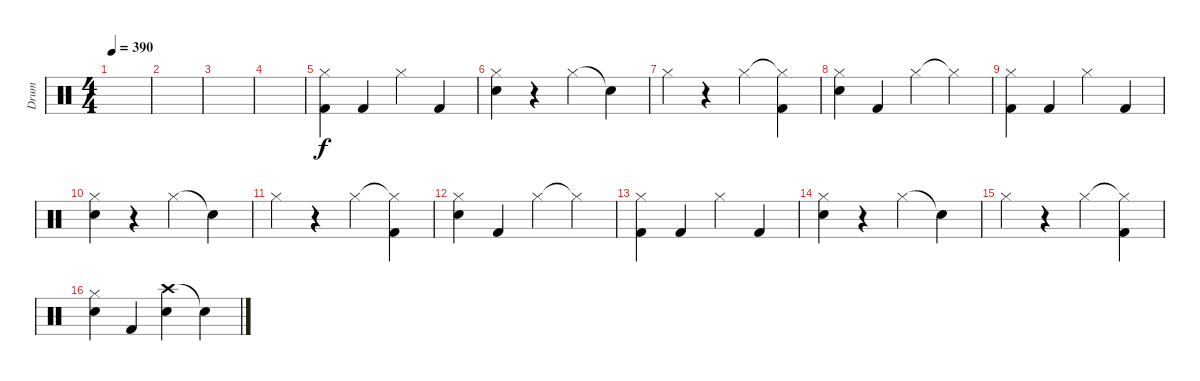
\track ("Drum" "Drum") {instrument percussion}
\staff {score}
\articulation defaults
\ts (4 4)
\tempo 390
\clef neutral
\ks c
|
|
|
|
("Hi-Hat (closed)" "Kick (hit) 2").4 "Kick (hit) 2".4 "Hi-Hat (closed)".4 "Kick (hit) 2".4 |
("Hi-Hat (closed)" "Electric Snare (hit)").4 r.4 "Hi-Hat (closed)".4 "Snare (hit)"{t}.4 |
"Hi-Hat (closed)".4 r.4 "Hi-Hat (closed)".4 ("Hi-Hat (closed)"{t} "Kick (hit) 2").4 |
("Hi-Hat (closed)" "Electric Snare (hit)").4 "Kick (hit) 2".4 "Hi-Hat (closed)".4 "Hi-Hat (closed)"{t}.4 |
("Hi-Hat (closed)" "Kick (hit) 2").4 "Kick (hit) 2".4 "Hi-Hat (closed)".4 "Kick (hit) 2".4 |
("Hi-Hat (closed)" "Electric Snare (hit)").4 r.4 "Hi-Hat (closed)".4 "Snare (hit)"{t}.4 |
"Hi-Hat (closed)".4 r.4 "Hi-Hat (closed)".4 ("Hi-Hat (closed)"{t} "Kick (hit) 2").4 |
("Hi-Hat (closed)" "Electric Snare (hit)").4 "Kick (hit) 2".4 "Hi-Hat (closed)".4 "Hi-Hat (closed)"{t}.4 |
("Hi-Hat (closed)" "Kick (hit) 2").4 "Kick (hit) 2".4 "Hi-Hat (closed)".4 "Kick (hit) 2".4 |
("Hi-Hat (closed)" "Electric Snare (hit)").4 r.4 "Hi-Hat (closed)".4 "Snare (hit)"{t}.4 |
"Hi-Hat (closed)".4 r.4 "Hi-Hat (closed)".4 ("Hi-Hat (closed)"{t} "Kick (hit) 2").4 |
("Hi-Hat (closed)" "Electric Snare (hit)").4 "Kick (hit) 2".4 ("Crash high (hit)" "Electric Snare (hit)").4 "Snare (hit)"{t}.4
